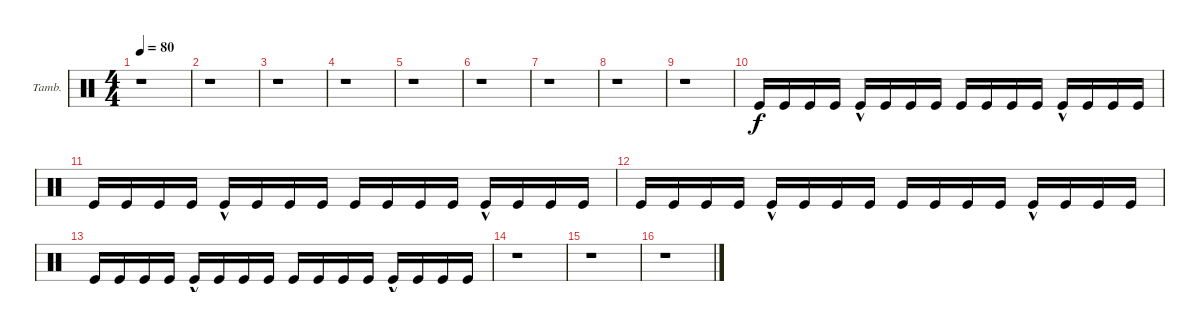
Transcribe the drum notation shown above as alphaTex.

\bracketExtendMode groupsimilarinstruments
\firstSystemTrackNameOrientation horizontal
\otherSystemsTrackNameOrientation horizontal
\track ("Tambourine" "Tamb.") {instrument percussion}
\staff {score}
\articulation defaults
\ts (4 4)
\tempo 80
\clef neutral
\ks c
r.1{dy f} |
r.1 |
r.1 |
r.1 |
r.1 |
r.1 |
r.1 |
r.1 |
r.1 |
"Kick (hit)".16 "Kick (hit)".16 "Kick (hit)".16 "Kick (hit)".16 "Kick (hit)"{hac}.16 "Kick (hit)".16 "Kick (hit)".16 "Kick (hit)".16 "Kick (hit)".16 "Kick (hit)".16 "Kick (hit)".16 "Kick (hit)".16 "Kick (hit)"{hac}.16 "Kick (hit)".16 "Kick (hit)".16 "Kick (hit)".16 |
"Kick (hit)".16 "Kick (hit)".16 "Kick (hit)".16 "Kick (hit)".16 "Kick (hit)"{hac}.16 "Kick (hit)".16 "Kick (hit)".16 "Kick (hit)".16 "Kick (hit)".16 "Kick (hit)".16 "Kick (hit)".16 "Kick (hit)".16 "Kick (hit)"{hac}.16 "Kick (hit)".16 "Kick (hit)".16 "Kick (hit)".16 |
"Kick (hit)".16 "Kick (hit)".16 "Kick (hit)".16 "Kick (hit)".16 "Kick (hit)"{hac}.16 "Kick (hit)".16 "Kick (hit)".16 "Kick (hit)".16 "Kick (hit)".16 "Kick (hit)".16 "Kick (hit)".16 "Kick (hit)".16 "Kick (hit)"{hac}.16 "Kick (hit)".16 "Kick (hit)".16 "Kick (hit)".16 |
"Kick (hit)".16 "Kick (hit)".16 "Kick (hit)".16 "Kick (hit)".16 "Kick (hit)"{hac}.16 "Kick (hit)".16 "Kick (hit)".16 "Kick (hit)".16 "Kick (hit)".16 "Kick (hit)".16 "Kick (hit)".16 "Kick (hit)".16 "Kick (hit)"{hac}.16 "Kick (hit)".16 "Kick (hit)".16 "Kick (hit)".16 |
r.1 |
r.1 |
r.1
